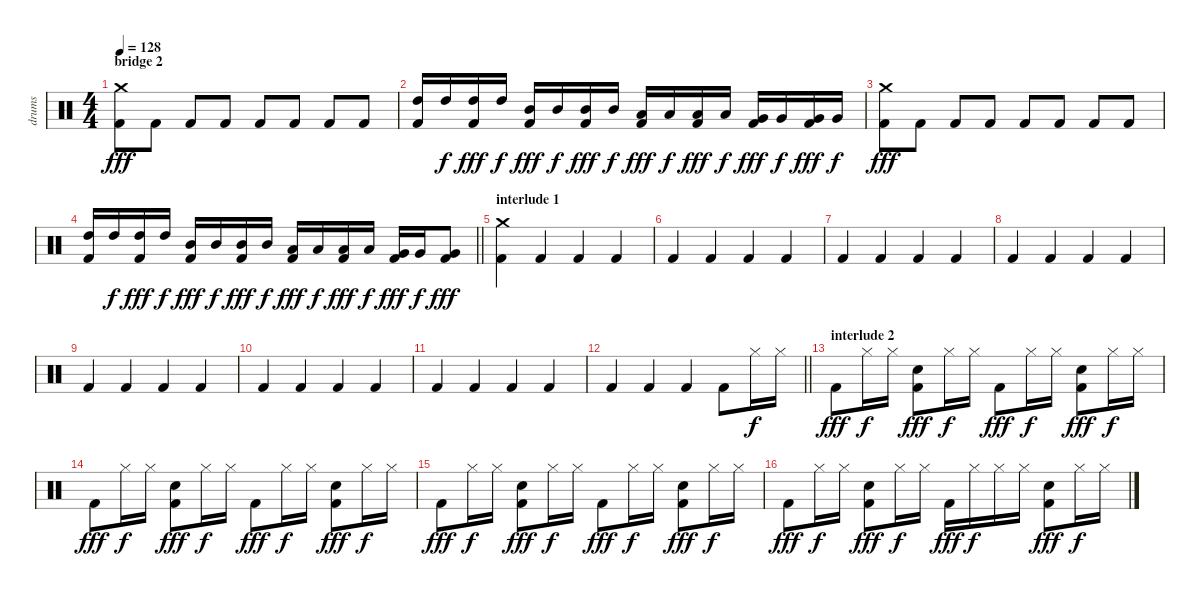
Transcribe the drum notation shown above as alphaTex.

\track ("drums" "drums") {instrument percussion}
\staff {score}
\articulation defaults
\ts (4 4)
\section ("" "bridge 2")
\tempo 128
\clef neutral
\ks c
("Crash medium (hit)" "Kick (hit) 2").8{dy fff} "Kick (hit) 2".8 "Kick (hit) 2".8 "Kick (hit) 2".8 "Kick (hit) 2".8 "Kick (hit) 2".8 "Kick (hit) 2".8 "Kick (hit) 2".8 |
("High Tom (hit)" "Kick (hit) 2").16 "High Tom (hit)".16{dy f} ("High Tom (hit)" "Kick (hit) 2").16{dy fff} "High Tom (hit)".16{dy f} ("Mid Tom (hit)" "Kick (hit) 2").16{dy fff} "Mid Tom (hit)".16{dy f} ("Mid Tom (hit)" "Kick (hit) 2").16{dy fff} "Mid Tom (hit)".16{dy f} ("Low Tom (hit)" "Kick (hit) 2").16{dy fff} "Low Tom (hit)".16{dy f} ("Low Tom (hit)" "Kick (hit) 2").16{dy fff} "Low Tom (hit)".16{dy f} ("Very Low Tom (hit)" "Kick (hit) 2").16{dy fff} "Very Low Tom (hit)".16{dy f} ("Very Low Tom (hit)" "Kick (hit) 2").16{dy fff} "Very Low Tom (hit)".16{dy f} |
("Crash medium (hit)" "Kick (hit) 2").8{dy fff} "Kick (hit) 2".8 "Kick (hit) 2".8 "Kick (hit) 2".8 "Kick (hit) 2".8 "Kick (hit) 2".8 "Kick (hit) 2".8 "Kick (hit) 2".8 |
\barLineRight lightlight
("High Tom (hit)" "Kick (hit) 2").16 "High Tom (hit)".16{dy f} ("High Tom (hit)" "Kick (hit) 2").16{dy fff} "High Tom (hit)".16{dy f} ("Mid Tom (hit)" "Kick (hit) 2").16{dy fff} "Mid Tom (hit)".16{dy f} ("Mid Tom (hit)" "Kick (hit) 2").16{dy fff} "Mid Tom (hit)".16{dy f} ("Low Tom (hit)" "Kick (hit) 2").16{dy fff} "Low Tom (hit)".16{dy f} ("Low Tom (hit)" "Kick (hit) 2").16{dy fff} "Low Tom (hit)".16{dy f} ("Very Low Tom (hit)" "Kick (hit) 2").16{dy fff} "Very Low Tom (hit)".16{dy f} ("Very Low Tom (hit)" "Kick (hit) 2").8{dy fff} |
\section ("" "interlude 1")
("Crash medium (hit)" "Kick (hit) 2").4 "Kick (hit) 2".4 "Kick (hit) 2".4 "Kick (hit) 2".4 |
"Kick (hit) 2".4 "Kick (hit) 2".4 "Kick (hit) 2".4 "Kick (hit) 2".4 |
"Kick (hit) 2".4 "Kick (hit) 2".4 "Kick (hit) 2".4 "Kick (hit) 2".4 |
"Kick (hit) 2".4 "Kick (hit) 2".4 "Kick (hit) 2".4 "Kick (hit) 2".4 |
"Kick (hit) 2".4 "Kick (hit) 2".4 "Kick (hit) 2".4 "Kick (hit) 2".4 |
"Kick (hit) 2".4 "Kick (hit) 2".4 "Kick (hit) 2".4 "Kick (hit) 2".4 |
"Kick (hit) 2".4 "Kick (hit) 2".4 "Kick (hit) 2".4 "Kick (hit) 2".4 |
\barLineRight lightlight "Kick (hit) 2".4 "Kick (hit) 2".4 "Kick (hit) 2".4 "Kick (hit) 2".8 "Hi-Hat (closed)".16{dy f} "Hi-Hat (closed)".16
|
\section ("" "interlude 2")
"Kick (hit) 2".8{dy fff} "Hi-Hat (closed)".16{dy f} "Hi-Hat (closed)".16 ("Electric Snare (hit)" "Kick (hit) 2").8{dy fff} "Hi-Hat (closed)".16{dy f} "Hi-Hat (closed)".16 "Kick (hit) 2".8{dy fff} "Hi-Hat (closed)".16{dy f} "Hi-Hat (closed)".16 ("Electric Snare (hit)" "Kick (hit) 2").8{dy fff} "Hi-Hat (closed)".16{dy f} "Hi-Hat (closed)".16 |
"Kick (hit) 2".8{dy fff} "Hi-Hat (closed)".16{dy f} "Hi-Hat (closed)".16 ("Electric Snare (hit)" "Kick (hit) 2").8{dy fff} "Hi-Hat (closed)".16{dy f} "Hi-Hat (closed)".16 "Kick (hit) 2".8{dy fff} "Hi-Hat (closed)".16{dy f} "Hi-Hat (closed)".16 ("Electric Snare (hit)" "Kick (hit) 2").8{dy fff} "Hi-Hat (closed)".16{dy f} "Hi-Hat (closed)".16 |
"Kick (hit) 2".8{dy fff} "Hi-Hat (closed)".16{dy f} "Hi-Hat (closed)".16 ("Electric Snare (hit)" "Kick (hit) 2").8{dy fff} "Hi-Hat (closed)".16{dy f} "Hi-Hat (closed)".16 "Kick (hit) 2".8{dy fff} "Hi-Hat (closed)".16{dy f} "Hi-Hat (closed)".16 ("Electric Snare (hit)" "Kick (hit) 2").8{dy fff} "Hi-Hat (closed)".16{dy f} "Hi-Hat (closed)".16 |
"Kick (hit) 2".8{dy fff} "Hi-Hat (closed)".16{dy f} "Hi-Hat (closed)".16 ("Electric Snare (hit)" "Kick (hit) 2").8{dy fff} "Hi-Hat (closed)".16{dy f} "Hi-Hat (closed)".16 "Kick (hit) 2".16{dy fff} "Hi-Hat (closed)".16{dy f} "Hi-Hat (closed)".16 "Hi-Hat (closed)".16 ("Electric Snare (hit)" "Kick (hit) 2").8{dy fff} "Hi-Hat (closed)".16{dy f} "Hi-Hat (closed)".16
